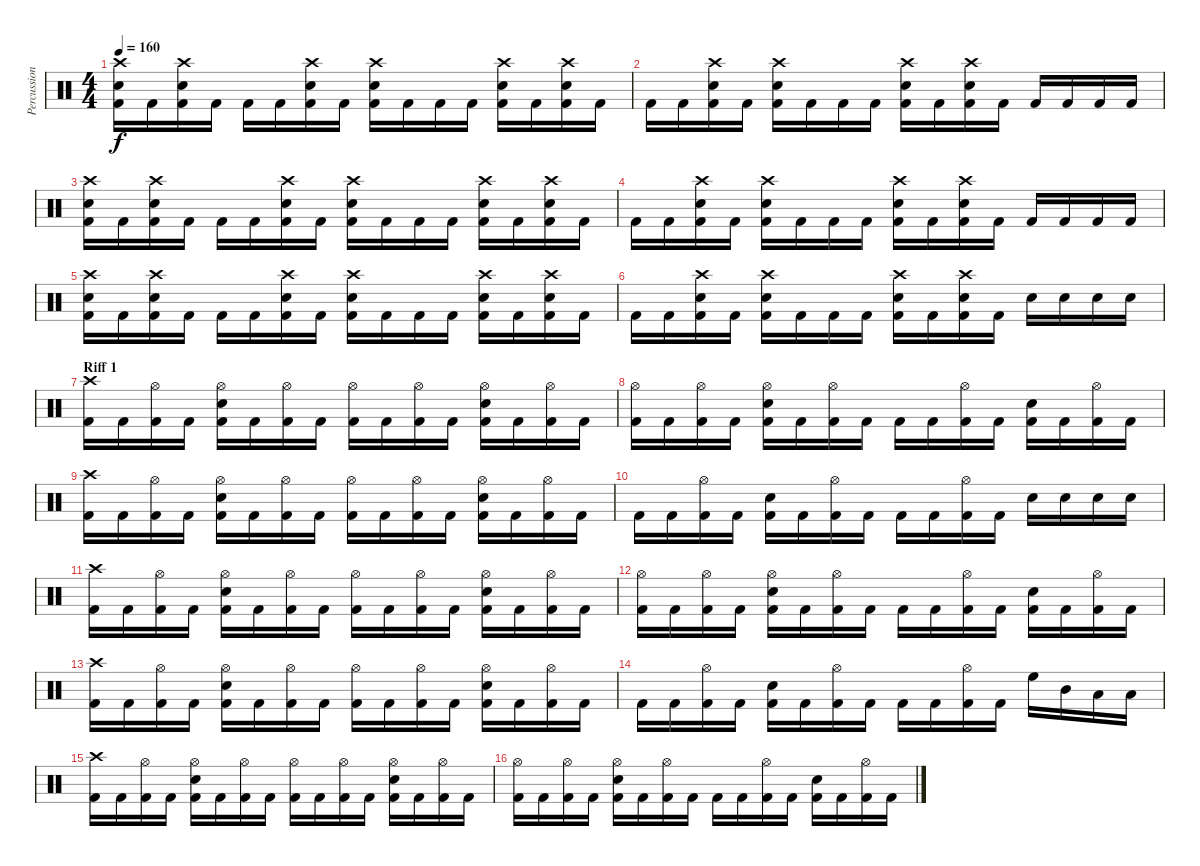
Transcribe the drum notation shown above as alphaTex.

\track ("Percussion" "Percussion") {instrument percussion}
\staff {score}
\articulation defaults
\ts (4 4)
\tempo 160
\clef neutral
\ks c
("Crash high (hit)" "Electric Snare (hit)" "Kick (hit) 2").16{dy f} "Kick (hit) 2".16 ("Crash high (hit)" "Electric Snare (hit)" "Kick (hit) 2").16 "Kick (hit) 2".16 "Kick (hit) 2".16 "Kick (hit) 2".16 ("Crash high (hit)" "Electric Snare (hit)" "Kick (hit) 2").16 "Kick (hit) 2".16 ("Crash high (hit)" "Electric Snare (hit)" "Kick (hit) 2").16 "Kick (hit) 2".16 "Kick (hit) 2".16 "Kick (hit) 2".16 ("Crash high (hit)" "Electric Snare (hit)" "Kick (hit) 2").16 "Kick (hit) 2".16 ("Crash high (hit)" "Electric Snare (hit)" "Kick (hit) 2").16 "Kick (hit) 2".16 |
"Kick (hit) 2".16 "Kick (hit) 2".16 ("Crash high (hit)" "Electric Snare (hit)" "Kick (hit) 2").16 "Kick (hit) 2".16 ("Crash high (hit)" "Electric Snare (hit)" "Kick (hit) 2").16 "Kick (hit) 2".16 "Kick (hit) 2".16 "Kick (hit) 2".16 ("Crash high (hit)" "Electric Snare (hit)" "Kick (hit) 2").16 "Kick (hit) 2".16 ("Crash high (hit)" "Electric Snare (hit)" "Kick (hit) 2").16 "Kick (hit) 2".16 "Kick (hit) 2".16 "Kick (hit) 2".16 "Kick (hit) 2".16 "Kick (hit) 2".16 |
("Crash high (hit)" "Electric Snare (hit)" "Kick (hit) 2").16 "Kick (hit) 2".16 ("Crash high (hit)" "Electric Snare (hit)" "Kick (hit) 2").16 "Kick (hit) 2".16 "Kick (hit) 2".16 "Kick (hit) 2".16 ("Crash high (hit)" "Electric Snare (hit)" "Kick (hit) 2").16 "Kick (hit) 2".16 ("Crash high (hit)" "Electric Snare (hit)" "Kick (hit) 2").16 "Kick (hit) 2".16 "Kick (hit) 2".16 "Kick (hit) 2".16 ("Crash high (hit)" "Electric Snare (hit)" "Kick (hit) 2").16 "Kick (hit) 2".16 ("Crash high (hit)" "Electric Snare (hit)" "Kick (hit) 2").16 "Kick (hit) 2".16 |
"Kick (hit) 2".16 "Kick (hit) 2".16 ("Crash high (hit)" "Electric Snare (hit)" "Kick (hit) 2").16 "Kick (hit) 2".16 ("Crash high (hit)" "Electric Snare (hit)" "Kick (hit) 2").16 "Kick (hit) 2".16 "Kick (hit) 2".16 "Kick (hit) 2".16 ("Crash high (hit)" "Electric Snare (hit)" "Kick (hit) 2").16 "Kick (hit) 2".16 ("Crash high (hit)" "Electric Snare (hit)" "Kick (hit) 2").16 "Kick (hit) 2".16 "Kick (hit) 2".16 "Kick (hit) 2".16 "Kick (hit) 2".16 "Kick (hit) 2".16 |
("Crash high (hit)" "Electric Snare (hit)" "Kick (hit) 2").16 "Kick (hit) 2".16 ("Crash high (hit)" "Electric Snare (hit)" "Kick (hit) 2").16 "Kick (hit) 2".16 "Kick (hit) 2".16 "Kick (hit) 2".16 ("Crash high (hit)" "Electric Snare (hit)" "Kick (hit) 2").16 "Kick (hit) 2".16 ("Crash high (hit)" "Electric Snare (hit)" "Kick (hit) 2").16 "Kick (hit) 2".16 "Kick (hit) 2".16 "Kick (hit) 2".16 ("Crash high (hit)" "Electric Snare (hit)" "Kick (hit) 2").16 "Kick (hit) 2".16 ("Crash high (hit)" "Electric Snare (hit)" "Kick (hit) 2").16 "Kick (hit) 2".16 |
"Kick (hit) 2".16 "Kick (hit) 2".16 ("Crash high (hit)" "Electric Snare (hit)" "Kick (hit) 2").16 "Kick (hit) 2".16 ("Crash high (hit)" "Electric Snare (hit)" "Kick (hit) 2").16 "Kick (hit) 2".16 "Kick (hit) 2".16 "Kick (hit) 2".16 ("Crash high (hit)" "Electric Snare (hit)" "Kick (hit) 2").16 "Kick (hit) 2".16 ("Crash high (hit)" "Electric Snare (hit)" "Kick (hit) 2").16 "Kick (hit) 2".16 "Electric Snare (hit)".16 "Electric Snare (hit)".16 "Electric Snare (hit)".16 "Electric Snare (hit)".16 |
\section ("" "Riff 1")
("Crash high (hit)" "Kick (hit) 2").16 "Kick (hit) 2".16 ("Hi-Hat (open)" "Kick (hit) 2").16 "Kick (hit) 2".16 ("Hi-Hat (open)" "Electric Snare (hit)" "Kick (hit) 2").16 "Kick (hit) 2".16 ("Hi-Hat (open)" "Kick (hit) 2").16 "Kick (hit) 2".16 ("Hi-Hat (open)" "Kick (hit) 2").16 "Kick (hit) 2".16 ("Hi-Hat (open)" "Kick (hit) 2").16 "Kick (hit) 2".16 ("Hi-Hat (open)" "Electric Snare (hit)" "Kick (hit) 2").16 "Kick (hit) 2".16 ("Hi-Hat (open)" "Kick (hit) 2").16 "Kick (hit) 2".16 |
("Hi-Hat (open)" "Kick (hit) 2").16 "Kick (hit) 2".16 ("Hi-Hat (open)" "Kick (hit) 2").16 "Kick (hit) 2".16 ("Hi-Hat (open)" "Electric Snare (hit)" "Kick (hit) 2").16 "Kick (hit) 2".16 ("Hi-Hat (open)" "Kick (hit) 2").16 "Kick (hit) 2".16 "Kick (hit) 2".16 "Kick (hit) 2".16 ("Hi-Hat (open)" "Kick (hit) 2").16 "Kick (hit) 2".16 ("Electric Snare (hit)" "Kick (hit) 2").16 "Kick (hit) 2".16 ("Hi-Hat (open)" "Kick (hit) 2").16 "Kick (hit) 2".16 |
("Crash high (hit)" "Kick (hit) 2").16 "Kick (hit) 2".16 ("Hi-Hat (open)" "Kick (hit) 2").16 "Kick (hit) 2".16 ("Hi-Hat (open)" "Electric Snare (hit)" "Kick (hit) 2").16 "Kick (hit) 2".16 ("Hi-Hat (open)" "Kick (hit) 2").16 "Kick (hit) 2".16 ("Hi-Hat (open)" "Kick (hit) 2").16 "Kick (hit) 2".16 ("Hi-Hat (open)" "Kick (hit) 2").16 "Kick (hit) 2".16 ("Hi-Hat (open)" "Electric Snare (hit)" "Kick (hit) 2").16 "Kick (hit) 2".16 ("Hi-Hat (open)" "Kick (hit) 2").16 "Kick (hit) 2".16 |
"Kick (hit) 2".16 "Kick (hit) 2".16 ("Hi-Hat (open)" "Kick (hit) 2").16 "Kick (hit) 2".16 ("Electric Snare (hit)" "Kick (hit) 2").16 "Kick (hit) 2".16 ("Hi-Hat (open)" "Kick (hit) 2").16 "Kick (hit) 2".16 "Kick (hit) 2".16 "Kick (hit) 2".16 ("Hi-Hat (open)" "Kick (hit) 2").16 "Kick (hit) 2".16 "Electric Snare (hit)".16 "Electric Snare (hit)".16 "Electric Snare (hit)".16 "Electric Snare (hit)".16 |
("Crash high (hit)" "Kick (hit) 2").16 "Kick (hit) 2".16 ("Hi-Hat (open)" "Kick (hit) 2").16 "Kick (hit) 2".16 ("Hi-Hat (open)" "Electric Snare (hit)" "Kick (hit) 2").16 "Kick (hit) 2".16 ("Hi-Hat (open)" "Kick (hit) 2").16 "Kick (hit) 2".16 ("Hi-Hat (open)" "Kick (hit) 2").16 "Kick (hit) 2".16 ("Hi-Hat (open)" "Kick (hit) 2").16 "Kick (hit) 2".16 ("Hi-Hat (open)" "Electric Snare (hit)" "Kick (hit) 2").16 "Kick (hit) 2".16 ("Hi-Hat (open)" "Kick (hit) 2").16 "Kick (hit) 2".16 |
("Hi-Hat (open)" "Kick (hit) 2").16 "Kick (hit) 2".16 ("Hi-Hat (open)" "Kick (hit) 2").16 "Kick (hit) 2".16 ("Hi-Hat (open)" "Electric Snare (hit)" "Kick (hit) 2").16 "Kick (hit) 2".16 ("Hi-Hat (open)" "Kick (hit) 2").16 "Kick (hit) 2".16 "Kick (hit) 2".16 "Kick (hit) 2".16 ("Hi-Hat (open)" "Kick (hit) 2").16 "Kick (hit) 2".16 ("Electric Snare (hit)" "Kick (hit) 2").16 "Kick (hit) 2".16 ("Hi-Hat (open)" "Kick (hit) 2").16 "Kick (hit) 2".16 |
("Crash high (hit)" "Kick (hit) 2").16 "Kick (hit) 2".16 ("Hi-Hat (open)" "Kick (hit) 2").16 "Kick (hit) 2".16 ("Hi-Hat (open)" "Electric Snare (hit)" "Kick (hit) 2").16 "Kick (hit) 2".16 ("Hi-Hat (open)" "Kick (hit) 2").16 "Kick (hit) 2".16 ("Hi-Hat (open)" "Kick (hit) 2").16 "Kick (hit) 2".16 ("Hi-Hat (open)" "Kick (hit) 2").16 "Kick (hit) 2".16 ("Hi-Hat (open)" "Electric Snare (hit)" "Kick (hit) 2").16 "Kick (hit) 2".16 ("Hi-Hat (open)" "Kick (hit) 2").16 "Kick (hit) 2".16 |
"Kick (hit) 2".16 "Kick (hit) 2".16 ("Hi-Hat (open)" "Kick (hit) 2").16 "Kick (hit) 2".16 ("Electric Snare (hit)" "Kick (hit) 2").16 "Kick (hit) 2".16 ("Hi-Hat (open)" "Kick (hit) 2").16 "Kick (hit) 2".16 "Kick (hit) 2".16 "Kick (hit) 2".16 ("Hi-Hat (open)" "Kick (hit) 2").16 "Kick (hit) 2".16 "High Floor Tom (hit)".16 "Mid Tom (hit)".16 "Low Tom (hit)".16 "Low Floor Tom (hit)".16 |
("Crash high (hit)" "Kick (hit) 2").16 "Kick (hit) 2".16 ("Hi-Hat (open)" "Kick (hit) 2").16 "Kick (hit) 2".16 ("Hi-Hat (open)" "Electric Snare (hit)" "Kick (hit) 2").16 "Kick (hit) 2".16 ("Hi-Hat (open)" "Kick (hit) 2").16 "Kick (hit) 2".16 ("Hi-Hat (open)" "Kick (hit) 2").16 "Kick (hit) 2".16 ("Hi-Hat (open)" "Kick (hit) 2").16 "Kick (hit) 2".16 ("Hi-Hat (open)" "Electric Snare (hit)" "Kick (hit) 2").16 "Kick (hit) 2".16 ("Hi-Hat (open)" "Kick (hit) 2").16 "Kick (hit) 2".16 |
("Hi-Hat (open)" "Kick (hit) 2").16 "Kick (hit) 2".16 ("Hi-Hat (open)" "Kick (hit) 2").16 "Kick (hit) 2".16 ("Hi-Hat (open)" "Electric Snare (hit)" "Kick (hit) 2").16 "Kick (hit) 2".16 ("Hi-Hat (open)" "Kick (hit) 2").16 "Kick (hit) 2".16 "Kick (hit) 2".16 "Kick (hit) 2".16 ("Hi-Hat (open)" "Kick (hit) 2").16 "Kick (hit) 2".16 ("Electric Snare (hit)" "Kick (hit) 2").16 "Kick (hit) 2".16 ("Hi-Hat (open)" "Kick (hit) 2").16 "Kick (hit) 2".16
